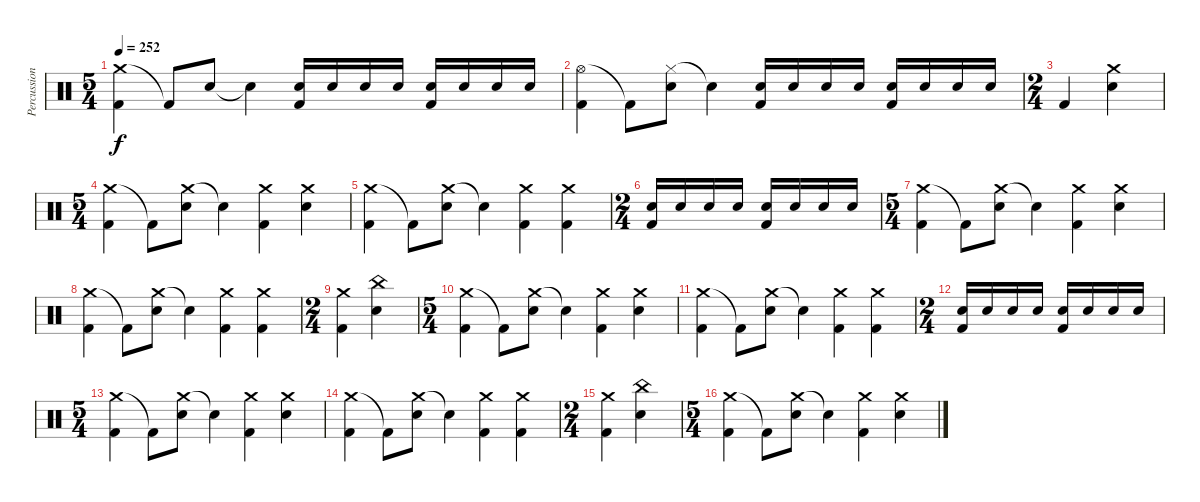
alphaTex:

\track ("Percussion" "Percussion") {instrument percussion}
\staff {score}
\articulation defaults
\ts (5 4)
\tempo 252
\clef neutral
\ks c
("Crash medium (hit)" "Kick (hit) 2").4{dy f} "Kick (hit) 2"{t}.8 "Electric Snare (hit)".8 "Electric Snare (hit)"{t}.4 ("Electric Snare (hit)" "Kick (hit) 2").16 "Electric Snare (hit)".16 "Electric Snare (hit)".16 "Electric Snare (hit)".16 ("Electric Snare (hit)" "Kick (hit) 2").16 "Electric Snare (hit)".16 "Electric Snare (hit)".16 "Electric Snare (hit)".16 |
("Hi-Hat (open)" "Kick (hit) 2").4 "Kick (hit) 2"{t}.8 ("Hi-Hat (closed)" "Electric Snare (hit)").8 "Electric Snare (hit)"{t}.4 ("Electric Snare (hit)" "Kick (hit) 2").16 "Electric Snare (hit)".16 "Electric Snare (hit)".16 "Electric Snare (hit)".16 ("Electric Snare (hit)" "Kick (hit) 2").16 "Electric Snare (hit)".16 "Electric Snare (hit)".16 "Electric Snare (hit)".16 |
\ts (2 4)
"Kick (hit) 2".4 ("Crash medium (hit)" "Electric Snare (hit)").4 |
\ts (5 4)
("Crash medium (hit)" "Kick (hit) 2").4 "Kick (hit) 2"{t}.8 ("Crash medium (hit)" "Electric Snare (hit)").8 "Electric Snare (hit)"{t}.4 ("Crash medium (hit)" "Kick (hit) 2").4 ("Crash medium (hit)" "Electric Snare (hit)").4 |
("Crash medium (hit)" "Kick (hit) 2").4 "Kick (hit) 2"{t}.8 ("Crash medium (hit)" "Electric Snare (hit)").8 "Electric Snare (hit)"{t}.4 ("Crash medium (hit)" "Kick (hit) 2").4 ("Crash medium (hit)" "Kick (hit) 2").4 |
\ts (2 4)
("Electric Snare (hit)" "Kick (hit) 2").16 "Electric Snare (hit)".16 "Electric Snare (hit)".16 "Electric Snare (hit)".16 ("Electric Snare (hit)" "Kick (hit) 2").16 "Electric Snare (hit)".16 "Electric Snare (hit)".16 "Electric Snare (hit)".16 |
\ts (5 4)
("Crash medium (hit)" "Kick (hit) 2").4 "Kick (hit) 2"{t}.8 ("Crash medium (hit)" "Electric Snare (hit)").8 "Electric Snare (hit)"{t}.4 ("Crash medium (hit)" "Kick (hit) 2").4 ("Crash medium (hit)" "Electric Snare (hit)").4 |
("Crash medium (hit)" "Kick (hit) 2").4 "Kick (hit) 2"{t}.8 ("Crash medium (hit)" "Electric Snare (hit)").8 "Electric Snare (hit)"{t}.4 ("Crash medium (hit)" "Kick (hit) 2").4 ("Crash medium (hit)" "Kick (hit) 2").4 |
\ts (2 4)
("Crash medium (hit)" "Kick (hit) 2").4 ("China (hit)" "Electric Snare (hit)").4 |
\ts (5 4)
("Crash medium (hit)" "Kick (hit) 2").4 "Kick (hit) 2"{t}.8 ("Crash medium (hit)" "Electric Snare (hit)").8 "Electric Snare (hit)"{t}.4 ("Crash medium (hit)" "Kick (hit) 2").4 ("Crash medium (hit)" "Electric Snare (hit)").4 |
("Crash medium (hit)" "Kick (hit) 2").4 "Kick (hit) 2"{t}.8 ("Crash medium (hit)" "Electric Snare (hit)").8 "Electric Snare (hit)"{t}.4 ("Crash medium (hit)" "Kick (hit) 2").4 ("Crash medium (hit)" "Kick (hit) 2").4 |
\ts (2 4)
("Electric Snare (hit)" "Kick (hit) 2").16 "Electric Snare (hit)".16 "Electric Snare (hit)".16 "Electric Snare (hit)".16 ("Electric Snare (hit)" "Kick (hit) 2").16 "Electric Snare (hit)".16 "Electric Snare (hit)".16 "Electric Snare (hit)".16 |
\ts (5 4)
("Crash medium (hit)" "Kick (hit) 2").4 "Kick (hit) 2"{t}.8 ("Crash medium (hit)" "Electric Snare (hit)").8 "Electric Snare (hit)"{t}.4 ("Crash medium (hit)" "Kick (hit) 2").4 ("Crash medium (hit)" "Electric Snare (hit)").4 |
("Crash medium (hit)" "Kick (hit) 2").4 "Kick (hit) 2"{t}.8 ("Crash medium (hit)" "Electric Snare (hit)").8 "Electric Snare (hit)"{t}.4 ("Crash medium (hit)" "Kick (hit) 2").4 ("Crash medium (hit)" "Kick (hit) 2").4 |
\ts (2 4)
("Crash medium (hit)" "Kick (hit) 2").4 ("China (hit)" "Electric Snare (hit)").4 |
\ts (5 4)
("Crash medium (hit)" "Kick (hit) 2").4 "Kick (hit) 2"{t}.8 ("Crash medium (hit)" "Electric Snare (hit)").8 "Electric Snare (hit)"{t}.4 ("Crash medium (hit)" "Kick (hit) 2").4 ("Crash medium (hit)" "Electric Snare (hit)").4
